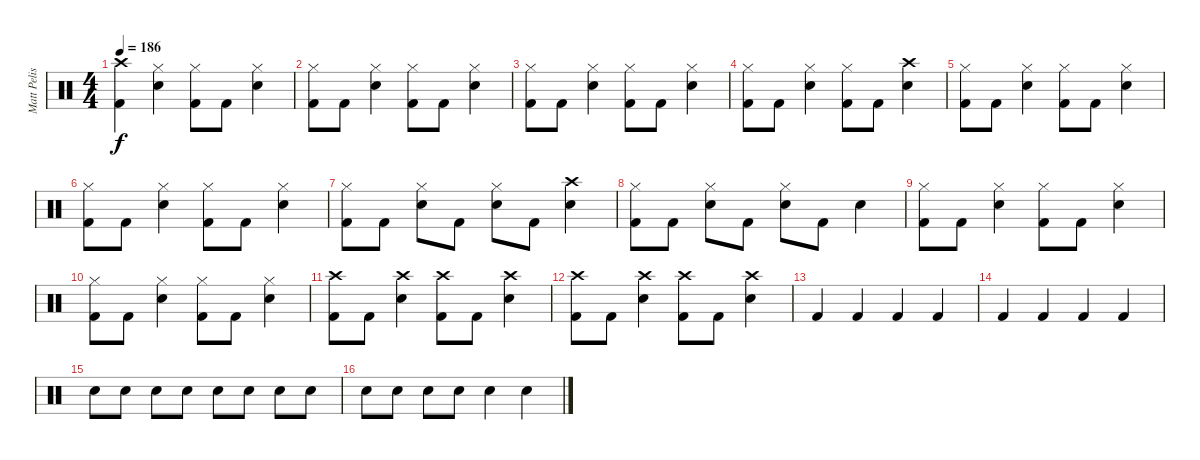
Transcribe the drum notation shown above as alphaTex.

\track ("Matt Pelissier" "Matt Pelis") {instrument percussion}
\staff {score}
\articulation defaults
\ts (4 4)
\tempo 186
\clef neutral
\ks c
("Crash high (hit)" "Kick (hit) 2").4{dy f} ("Snare (hit) 2" "Hi-Hat (closed)").4 ("Hi-Hat (closed)" "Kick (hit) 2").8 "Kick (hit) 2".8 ("Snare (hit) 2" "Hi-Hat (closed)").4 |
("Hi-Hat (closed)" "Kick (hit) 2").8 "Kick (hit) 2".8 ("Snare (hit) 2" "Hi-Hat (closed)").4 ("Hi-Hat (closed)" "Kick (hit) 2").8 "Kick (hit) 2".8 ("Snare (hit) 2" "Hi-Hat (closed)").4 |
("Hi-Hat (closed)" "Kick (hit) 2").8 "Kick (hit) 2".8 ("Snare (hit) 2" "Hi-Hat (closed)").4 ("Hi-Hat (closed)" "Kick (hit) 2").8 "Kick (hit) 2".8 ("Snare (hit) 2" "Hi-Hat (closed)").4 |
("Hi-Hat (closed)" "Kick (hit) 2").8 "Kick (hit) 2".8 ("Snare (hit) 2" "Hi-Hat (closed)").4 ("Hi-Hat (closed)" "Kick (hit) 2").8 "Kick (hit) 2".8 ("Snare (hit) 2" "Crash high (hit)").4 |
("Hi-Hat (closed)" "Kick (hit) 2").8 "Kick (hit) 2".8 ("Snare (hit) 2" "Hi-Hat (closed)").4 ("Hi-Hat (closed)" "Kick (hit) 2").8 "Kick (hit) 2".8 ("Snare (hit) 2" "Hi-Hat (closed)").4 |
("Hi-Hat (closed)" "Kick (hit) 2").8 "Kick (hit) 2".8 ("Snare (hit) 2" "Hi-Hat (closed)").4 ("Hi-Hat (closed)" "Kick (hit) 2").8 "Kick (hit) 2".8 ("Snare (hit) 2" "Hi-Hat (closed)").4 |
("Hi-Hat (closed)" "Kick (hit) 2").8 "Kick (hit) 2".8 ("Snare (hit) 2" "Hi-Hat (closed)").8 "Kick (hit) 2".8 ("Hi-Hat (closed)" "Snare (hit) 2").8 "Kick (hit) 2".8 ("Snare (hit) 2" "Crash high (hit)").4 |
("Hi-Hat (closed)" "Kick (hit) 2").8 "Kick (hit) 2".8 ("Snare (hit) 2" "Hi-Hat (closed)").8 "Kick (hit) 2".8 ("Hi-Hat (closed)" "Snare (hit) 2").8 "Kick (hit) 2".8 "Snare (hit) 2".4 |
("Hi-Hat (closed)" "Kick (hit) 2").8 "Kick (hit) 2".8 ("Snare (hit) 2" "Hi-Hat (closed)").4 ("Hi-Hat (closed)" "Kick (hit) 2").8 "Kick (hit) 2".8 ("Snare (hit) 2" "Hi-Hat (closed)").4 |
("Hi-Hat (closed)" "Kick (hit) 2").8 "Kick (hit) 2".8 ("Snare (hit) 2" "Hi-Hat (closed)").4 ("Hi-Hat (closed)" "Kick (hit) 2").8 "Kick (hit) 2".8 ("Snare (hit) 2" "Hi-Hat (closed)").4 |
("Crash high (hit)" "Kick (hit) 2").8 "Kick (hit) 2".8 ("Snare (hit) 2" "Crash high (hit)").4 ("Crash high (hit)" "Kick (hit) 2").8 "Kick (hit) 2".8 ("Snare (hit) 2" "Crash high (hit)").4 |
("Crash high (hit)" "Kick (hit) 2").8 "Kick (hit) 2".8 ("Snare (hit) 2" "Crash high (hit)").4 ("Crash high (hit)" "Kick (hit) 2").8 "Kick (hit) 2".8 ("Snare (hit) 2" "Crash high (hit)").4 |
"Kick (hit) 2".4 "Kick (hit) 2".4 "Kick (hit) 2".4 "Kick (hit) 2".4 |
"Kick (hit) 2".4 "Kick (hit) 2".4 "Kick (hit) 2".4 "Kick (hit) 2".4 |
"Snare (hit) 2".8 "Snare (hit) 2".8 "Snare (hit) 2".8 "Snare (hit) 2".8 "Snare (hit) 2".8 "Snare (hit) 2".8 "Snare (hit) 2".8 "Snare (hit) 2".8 |
"Snare (hit) 2".8 "Snare (hit) 2".8 "Snare (hit) 2".8 "Snare (hit) 2".8 "Snare (hit) 2".4 "Snare (hit) 2".4
